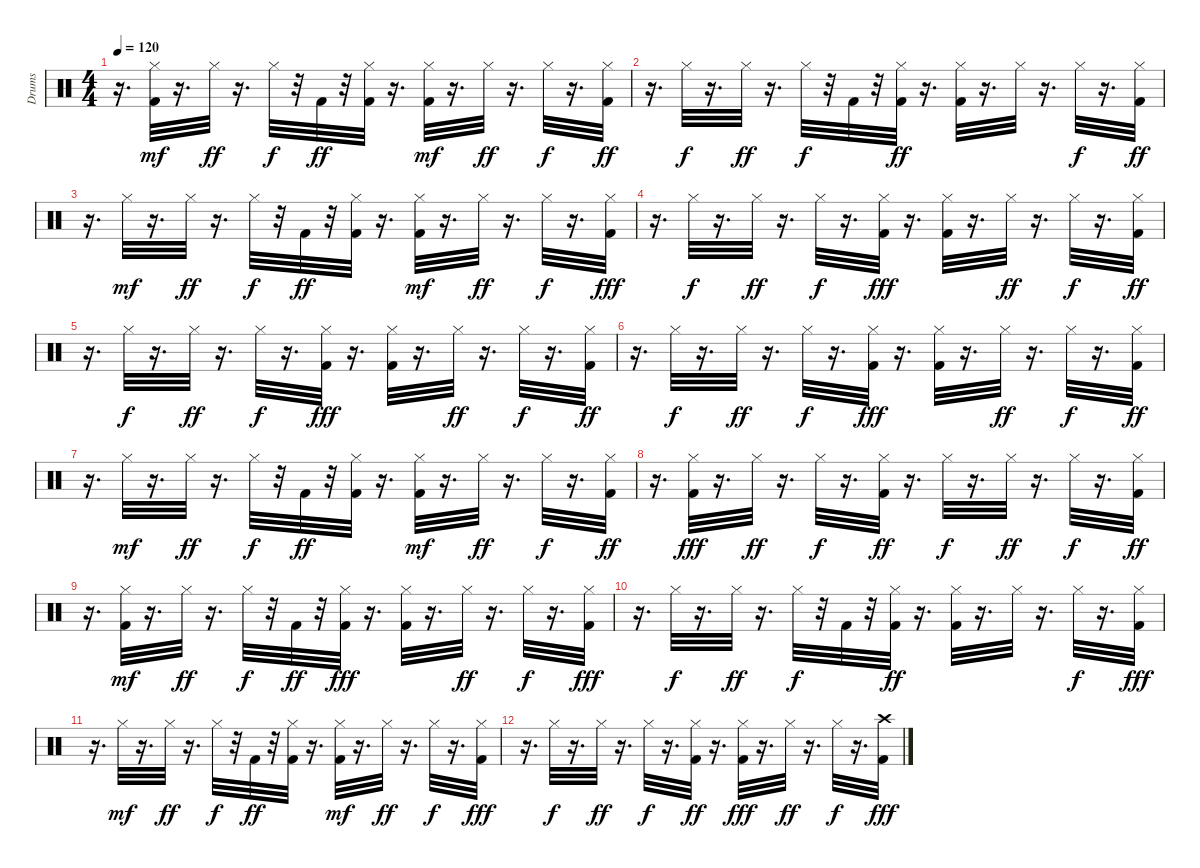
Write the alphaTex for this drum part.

\track ("Drums" "Drums") {instrument percussion}
\staff {score}
\articulation defaults
\ts (4 4)
\tempo 120
\clef neutral
\ks c
r.16{d dy fff} ("Kick (hit) 2" "Hi-Hat (closed)").32{dy mf} r.16{d} "Hi-Hat (closed)".32{dy ff} r.16{d} "Hi-Hat (closed)".32{dy f} r.32 "Kick (hit) 2".32{dy ff} r.32 ("Kick (hit) 2" "Hi-Hat (closed)").32 r.16{d} ("Kick (hit) 2" "Hi-Hat (closed)").32{dy mf} r.16{d} "Hi-Hat (closed)".32{dy ff} r.16{d} "Hi-Hat (closed)".32{dy f} r.16{d} ("Kick (hit) 2" "Hi-Hat (closed)").32{dy ff} |
r.16{d} "Hi-Hat (closed)".32{dy f} r.16{d} "Hi-Hat (closed)".32{dy ff} r.16{d} "Hi-Hat (closed)".32{dy f} r.32 "Kick (hit) 2".32 r.32 ("Kick (hit) 2" "Hi-Hat (closed)").32{dy ff} r.16{d} ("Hi-Hat (closed)" "Kick (hit) 2").32 r.16{d} "Hi-Hat (closed)".32 r.16{d} "Hi-Hat (closed)".32{dy f} r.16{d} ("Kick (hit) 2" "Hi-Hat (closed)").32{dy ff} |
r.16{d} "Hi-Hat (closed)".32{dy mf} r.16{d} "Hi-Hat (closed)".32{dy ff} r.16{d} "Hi-Hat (closed)".32{dy f} r.32 "Kick (hit) 2".32{dy ff} r.32 ("Kick (hit) 2" "Hi-Hat (closed)").32 r.16{d} ("Kick (hit) 2" "Hi-Hat (closed)").32{dy mf} r.16{d} "Hi-Hat (closed)".32{dy ff} r.16{d} "Hi-Hat (closed)".32{dy f} r.16{d} ("Hi-Hat (closed)" "Kick (hit) 2").32{dy fff} |
r.16{d} "Hi-Hat (closed)".32{dy f} r.16{d} "Hi-Hat (closed)".32{dy ff} r.16{d} "Hi-Hat (closed)".32{dy f} r.16{d} ("Hi-Hat (closed)" "Kick (hit) 2").32{dy fff} r.16{d} ("Kick (hit) 2" "Hi-Hat (closed)").32 r.16{d} "Hi-Hat (closed)".32{dy ff} r.16{d} "Hi-Hat (closed)".32{dy f} r.16{d} ("Kick (hit) 2" "Hi-Hat (closed)").32{dy ff} |
r.16{d} "Hi-Hat (closed)".32{dy f} r.16{d} "Hi-Hat (closed)".32{dy ff} r.16{d} "Hi-Hat (closed)".32{dy f} r.16{d} ("Hi-Hat (closed)" "Kick (hit) 2").32{dy fff} r.16{d} ("Kick (hit) 2" "Hi-Hat (closed)").32 r.16{d} "Hi-Hat (closed)".32{dy ff} r.16{d} "Hi-Hat (closed)".32{dy f} r.16{d} ("Kick (hit) 2" "Hi-Hat (closed)").32{dy ff} |
r.16{d} "Hi-Hat (closed)".32{dy f volume 10} r.16{d} "Hi-Hat (closed)".32{dy ff} r.16{d} "Hi-Hat (closed)".32{dy f} r.16{d} ("Hi-Hat (closed)" "Kick (hit) 2").32{dy fff} r.16{d} ("Kick (hit) 2" "Hi-Hat (closed)").32 r.16{d} "Hi-Hat (closed)".32{dy ff} r.16{d} "Hi-Hat (closed)".32{dy f} r.16{d} ("Kick (hit) 2" "Hi-Hat (closed)").32{dy ff} |
r.16{d} "Hi-Hat (closed)".32{dy mf volume 9} r.16{d} "Hi-Hat (closed)".32{dy ff} r.16{d} "Hi-Hat (closed)".32{dy f} r.32 "Kick (hit) 2".32{dy ff} r.32 ("Kick (hit) 2" "Hi-Hat (closed)").32 r.16{d} ("Kick (hit) 2" "Hi-Hat (closed)").32{dy mf} r.16{d} "Hi-Hat (closed)".32{dy ff} r.16{d} "Hi-Hat (closed)".32{dy f} r.16{d} ("Kick (hit) 2" "Hi-Hat (closed)").32{dy ff} |
r.16{d} ("Hi-Hat (closed)" "Kick (hit) 2").32{dy fff} r.16{d volume 8} "Hi-Hat (closed)".32{dy ff} r.16{d} "Hi-Hat (closed)".32{dy f} r.16{d} ("Kick (hit) 2" "Hi-Hat (closed)").32{dy ff} r.16{d} "Hi-Hat (closed)".32{dy f} r.16{d} "Hi-Hat (closed)".32{dy ff} r.16{d} "Hi-Hat (closed)".32{dy f} r.16{d} ("Kick (hit) 2" "Hi-Hat (closed)").32{dy ff} |
r.16{d} ("Kick (hit) 2" "Hi-Hat (closed)").32{dy mf volume 7} r.16{d} "Hi-Hat (closed)".32{dy ff} r.16{d} "Hi-Hat (closed)".32{dy f} r.32 "Kick (hit) 2".32{dy ff} r.32 ("Hi-Hat (closed)" "Kick (hit) 2").32{dy fff} r.16{d} ("Hi-Hat (closed)" "Kick (hit) 2").32 r.16{d} "Hi-Hat (closed)".32{dy ff} r.16{d} "Hi-Hat (closed)".32{dy f} r.16{d} ("Hi-Hat (closed)" "Kick (hit) 2").32{dy fff} |
r.16{d} "Hi-Hat (closed)".32{dy f volume 6} r.16{d} "Hi-Hat (closed)".32{dy ff} r.16{d} "Hi-Hat (closed)".32{dy f} r.32 "Kick (hit) 2".32 r.32 ("Kick (hit) 2" "Hi-Hat (closed)").32{dy ff} r.16{d} ("Hi-Hat (closed)" "Kick (hit) 2").32 r.16{d} "Hi-Hat (closed)".32 r.16{d} "Hi-Hat (closed)".32{dy f} r.16{d} ("Hi-Hat (closed)" "Kick (hit) 2").32{dy fff} |
r.16{d} "Hi-Hat (closed)".32{dy mf} r.16{d volume 5} "Hi-Hat (closed)".32{dy ff} r.16{d} "Hi-Hat (closed)".32{dy f} r.32 "Kick (hit) 2".32{dy ff} r.32 ("Kick (hit) 2" "Hi-Hat (closed)").32 r.16{d} ("Kick (hit) 2" "Hi-Hat (closed)").32{dy mf} r.16{d} "Hi-Hat (closed)".32{dy ff} r.16{d} "Hi-Hat (closed)".32{dy f} r.16{d} ("Hi-Hat (closed)" "Kick (hit) 2").32{dy fff} |
r.16{d} "Hi-Hat (closed)".32{dy f volume 4} r.16{d} "Hi-Hat (closed)".32{dy ff} r.16{d} "Hi-Hat (closed)".32{dy f} r.16{d} ("Kick (hit) 2" "Hi-Hat (closed)").32{dy ff} r.16{d} ("Kick (hit) 2" "Hi-Hat (closed)").32{dy fff} r.16{d} "Hi-Hat (closed)".32{dy ff} r.16{d} "Hi-Hat (closed)".32{dy f} r.16{d} ("Kick (hit) 2" "Crash high (hit)").32{dy fff}
